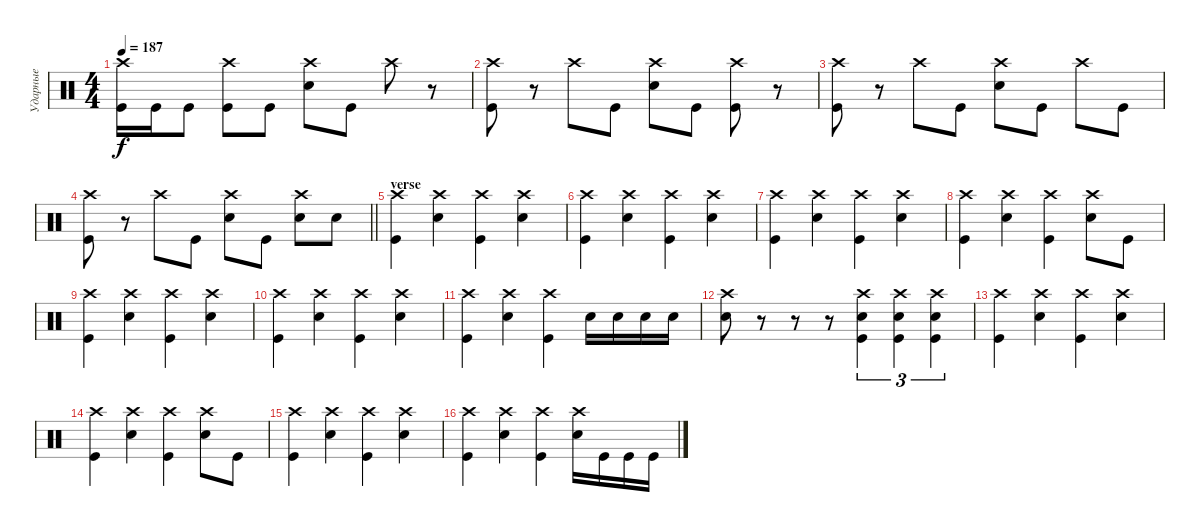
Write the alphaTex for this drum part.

\track ("Ударные" "Ударные") {instrument percussion}
\staff {score}
\articulation defaults
\ts (4 4)
\tempo 187
\clef neutral
\ks c
("Crash high (hit)" "Kick (hit)").16{dy f} "Kick (hit)".16 "Kick (hit)".8 ("Crash high (hit)" "Kick (hit)").8 "Kick (hit)".8 ("Crash high (hit)" "Electric Snare (hit)").8 "Kick (hit)".8 "Crash high (hit)".8 r.8 |
("Crash high (hit)" "Kick (hit)").8 r.8 "Crash high (hit)".8 "Kick (hit)".8 ("Crash high (hit)" "Electric Snare (hit)").8 "Kick (hit)".8 ("Crash high (hit)" "Kick (hit)").8 r.8 |
("Crash high (hit)" "Kick (hit)").8 r.8 "Crash high (hit)".8 "Kick (hit)".8 ("Crash high (hit)" "Electric Snare (hit)").8 "Kick (hit)".8 "Crash high (hit)".8 "Kick (hit)".8 |
\barLineRight lightlight
("Crash high (hit)" "Kick (hit)").8 r.8 "Crash high (hit)".8 "Kick (hit)".8 ("Crash high (hit)" "Electric Snare (hit)").8 "Kick (hit)".8 ("Crash high (hit)" "Electric Snare (hit)").8 "Electric Snare (hit)".8 |
\section ("" "verse")
("Crash high (hit)" "Kick (hit)").4 ("Crash high (hit)" "Electric Snare (hit)").4 ("Crash high (hit)" "Kick (hit)").4 ("Crash high (hit)" "Electric Snare (hit)").4 |
("Crash high (hit)" "Kick (hit)").4 ("Crash high (hit)" "Electric Snare (hit)").4 ("Crash high (hit)" "Kick (hit)").4 ("Crash high (hit)" "Electric Snare (hit)").4 |
("Crash high (hit)" "Kick (hit)").4 ("Crash high (hit)" "Electric Snare (hit)").4 ("Crash high (hit)" "Kick (hit)").4 ("Crash high (hit)" "Electric Snare (hit)").4 |
("Crash high (hit)" "Kick (hit)").4 ("Crash high (hit)" "Electric Snare (hit)").4 ("Crash high (hit)" "Kick (hit)").4 ("Crash high (hit)" "Electric Snare (hit)").8 "Kick (hit)".8 |
("Crash high (hit)" "Kick (hit)").4 ("Crash high (hit)" "Electric Snare (hit)").4 ("Crash high (hit)" "Kick (hit)").4 ("Crash high (hit)" "Electric Snare (hit)").4 |
("Crash high (hit)" "Kick (hit)").4 ("Crash high (hit)" "Electric Snare (hit)").4 ("Crash high (hit)" "Kick (hit)").4 ("Crash high (hit)" "Electric Snare (hit)").4 |
("Crash high (hit)" "Kick (hit)").4 ("Crash high (hit)" "Electric Snare (hit)").4 ("Crash high (hit)" "Kick (hit)").4 "Electric Snare (hit)".16 "Electric Snare (hit)".16 "Electric Snare (hit)".16 "Electric Snare (hit)".16 |
("Crash high (hit)" "Electric Snare (hit)").8 r.8 r.8 r.8 ("Electric Snare (hit)" "Crash high (hit)" "Kick (hit)").4{tu (3 2)} ("Electric Snare (hit)" "Crash high (hit)" "Kick (hit)").4{tu (3 2)} ("Electric Snare (hit)" "Crash high (hit)" "Kick (hit)").4{tu (3 2)} |
("Crash high (hit)" "Kick (hit)").4 ("Crash high (hit)" "Electric Snare (hit)").4 ("Crash high (hit)" "Kick (hit)").4 ("Crash high (hit)" "Electric Snare (hit)").4 |
("Crash high (hit)" "Kick (hit)").4 ("Crash high (hit)" "Electric Snare (hit)").4 ("Crash high (hit)" "Kick (hit)").4 ("Crash high (hit)" "Electric Snare (hit)").8 "Kick (hit)".8 |
("Crash high (hit)" "Kick (hit)").4 ("Crash high (hit)" "Electric Snare (hit)").4 ("Crash high (hit)" "Kick (hit)").4 ("Crash high (hit)" "Electric Snare (hit)").4 |
("Crash high (hit)" "Kick (hit)").4 ("Crash high (hit)" "Electric Snare (hit)").4 ("Crash high (hit)" "Kick (hit)").4 ("Crash high (hit)" "Electric Snare (hit)").16 "Kick (hit)".16 "Kick (hit)".16 "Kick (hit)".16
